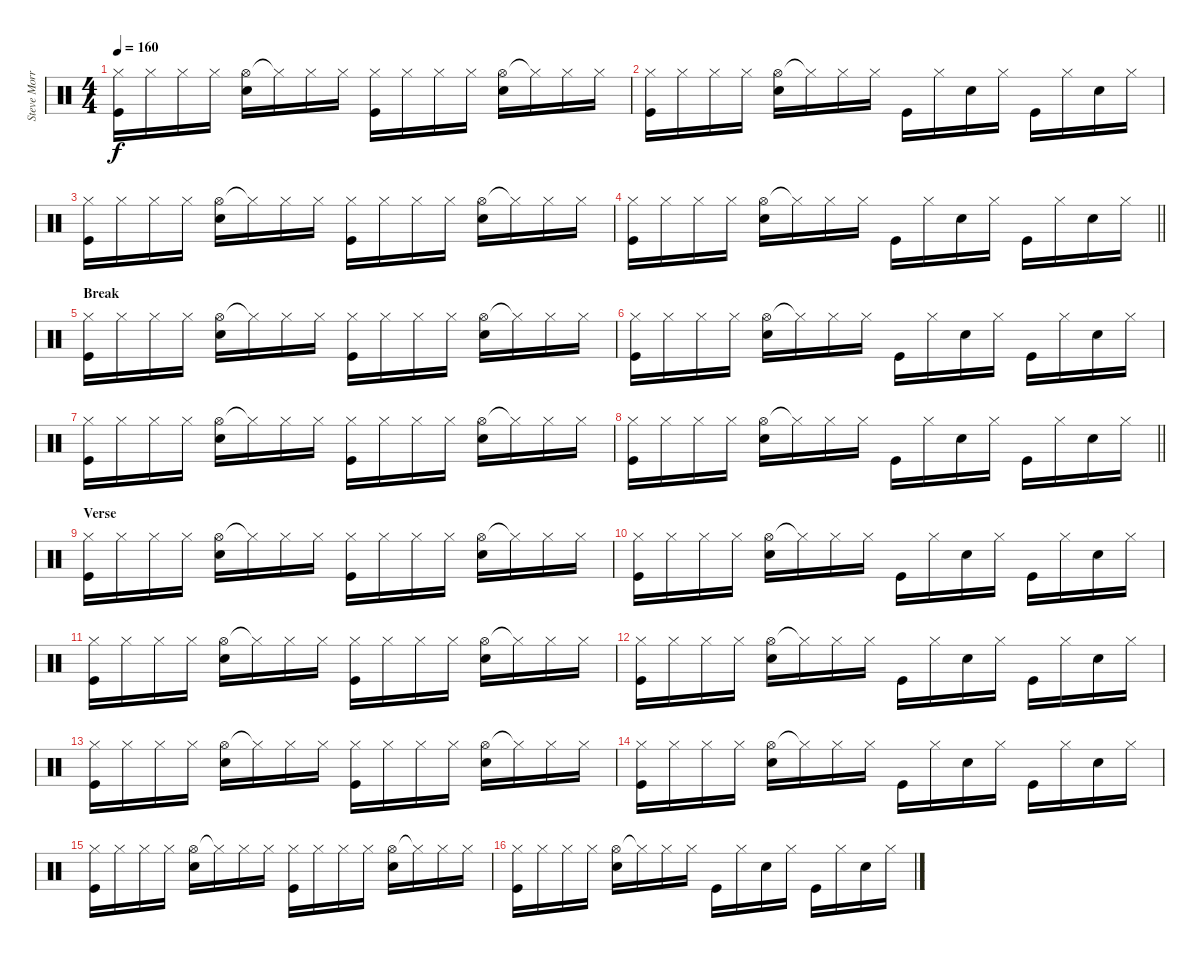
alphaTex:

\track ("Steve Morris" "Steve Morr") {instrument percussion}
\staff {score}
\articulation defaults
\ts (4 4)
\tempo 160
\clef neutral
\ks c
("Hi-Hat (closed)" "Kick (hit)").16{dy f} "Hi-Hat (closed)".16 "Hi-Hat (closed)".16 "Hi-Hat (closed)".16 ("Hi-Hat (open)" "Electric Snare (hit)").16 "Hi-Hat (closed)"{t}.16 "Hi-Hat (closed)".16 "Hi-Hat (closed)".16 ("Hi-Hat (closed)" "Kick (hit)").16 "Hi-Hat (closed)".16 "Hi-Hat (closed)".16 "Hi-Hat (closed)".16 ("Hi-Hat (open)" "Electric Snare (hit)").16 "Hi-Hat (closed)"{t}.16 "Hi-Hat (closed)".16 "Hi-Hat (closed)".16 |
("Hi-Hat (closed)" "Kick (hit)").16 "Hi-Hat (closed)".16 "Hi-Hat (closed)".16 "Hi-Hat (closed)".16 ("Hi-Hat (open)" "Electric Snare (hit)").16 "Hi-Hat (closed)"{t}.16 "Hi-Hat (closed)".16 "Hi-Hat (closed)".16 "Kick (hit)".16 "Hi-Hat (closed)".16 "Electric Snare (hit)".16 "Hi-Hat (closed)".16 "Kick (hit)".16 "Hi-Hat (closed)".16 "Electric Snare (hit)".16 "Hi-Hat (closed)".16 |
("Hi-Hat (closed)" "Kick (hit)").16 "Hi-Hat (closed)".16 "Hi-Hat (closed)".16 "Hi-Hat (closed)".16 ("Hi-Hat (open)" "Electric Snare (hit)").16 "Hi-Hat (closed)"{t}.16 "Hi-Hat (closed)".16 "Hi-Hat (closed)".16 ("Hi-Hat (closed)" "Kick (hit)").16 "Hi-Hat (closed)".16 "Hi-Hat (closed)".16 "Hi-Hat (closed)".16 ("Hi-Hat (open)" "Electric Snare (hit)").16 "Hi-Hat (closed)"{t}.16 "Hi-Hat (closed)".16 "Hi-Hat (closed)".16 |
\barLineRight lightlight
("Hi-Hat (closed)" "Kick (hit)").16 "Hi-Hat (closed)".16 "Hi-Hat (closed)".16 "Hi-Hat (closed)".16 ("Hi-Hat (open)" "Electric Snare (hit)").16 "Hi-Hat (closed)"{t}.16 "Hi-Hat (closed)".16 "Hi-Hat (closed)".16 "Kick (hit)".16 "Hi-Hat (closed)".16 "Electric Snare (hit)".16 "Hi-Hat (closed)".16 "Kick (hit)".16 "Hi-Hat (closed)".16 "Electric Snare (hit)".16 "Hi-Hat (closed)".16 |
\section ("" "Break")
("Hi-Hat (closed)" "Kick (hit)").16 "Hi-Hat (closed)".16 "Hi-Hat (closed)".16 "Hi-Hat (closed)".16 ("Hi-Hat (open)" "Electric Snare (hit)").16 "Hi-Hat (closed)"{t}.16 "Hi-Hat (closed)".16 "Hi-Hat (closed)".16 ("Hi-Hat (closed)" "Kick (hit)").16 "Hi-Hat (closed)".16 "Hi-Hat (closed)".16 "Hi-Hat (closed)".16 ("Hi-Hat (open)" "Electric Snare (hit)").16 "Hi-Hat (closed)"{t}.16 "Hi-Hat (closed)".16 "Hi-Hat (closed)".16 |
("Hi-Hat (closed)" "Kick (hit)").16 "Hi-Hat (closed)".16 "Hi-Hat (closed)".16 "Hi-Hat (closed)".16 ("Hi-Hat (open)" "Electric Snare (hit)").16 "Hi-Hat (closed)"{t}.16 "Hi-Hat (closed)".16 "Hi-Hat (closed)".16 "Kick (hit)".16 "Hi-Hat (closed)".16 "Electric Snare (hit)".16 "Hi-Hat (closed)".16 "Kick (hit)".16 "Hi-Hat (closed)".16 "Electric Snare (hit)".16 "Hi-Hat (closed)".16 |
("Hi-Hat (closed)" "Kick (hit)").16 "Hi-Hat (closed)".16 "Hi-Hat (closed)".16 "Hi-Hat (closed)".16 ("Hi-Hat (open)" "Electric Snare (hit)").16 "Hi-Hat (closed)"{t}.16 "Hi-Hat (closed)".16 "Hi-Hat (closed)".16 ("Hi-Hat (closed)" "Kick (hit)").16 "Hi-Hat (closed)".16 "Hi-Hat (closed)".16 "Hi-Hat (closed)".16 ("Hi-Hat (open)" "Electric Snare (hit)").16 "Hi-Hat (closed)"{t}.16 "Hi-Hat (closed)".16 "Hi-Hat (closed)".16 |
\barLineRight lightlight
("Hi-Hat (closed)" "Kick (hit)").16 "Hi-Hat (closed)".16 "Hi-Hat (closed)".16 "Hi-Hat (closed)".16 ("Hi-Hat (open)" "Electric Snare (hit)").16 "Hi-Hat (closed)"{t}.16 "Hi-Hat (closed)".16 "Hi-Hat (closed)".16 "Kick (hit)".16 "Hi-Hat (closed)".16 "Electric Snare (hit)".16 "Hi-Hat (closed)".16 "Kick (hit)".16 "Hi-Hat (closed)".16 "Electric Snare (hit)".16 "Hi-Hat (closed)".16 |
\section ("" "Verse")
("Hi-Hat (closed)" "Kick (hit)").16 "Hi-Hat (closed)".16 "Hi-Hat (closed)".16 "Hi-Hat (closed)".16 ("Hi-Hat (open)" "Electric Snare (hit)").16 "Hi-Hat (closed)"{t}.16 "Hi-Hat (closed)".16 "Hi-Hat (closed)".16 ("Hi-Hat (closed)" "Kick (hit)").16 "Hi-Hat (closed)".16 "Hi-Hat (closed)".16 "Hi-Hat (closed)".16 ("Hi-Hat (open)" "Electric Snare (hit)").16 "Hi-Hat (closed)"{t}.16 "Hi-Hat (closed)".16 "Hi-Hat (closed)".16 |
("Hi-Hat (closed)" "Kick (hit)").16 "Hi-Hat (closed)".16 "Hi-Hat (closed)".16 "Hi-Hat (closed)".16 ("Hi-Hat (open)" "Electric Snare (hit)").16 "Hi-Hat (closed)"{t}.16 "Hi-Hat (closed)".16 "Hi-Hat (closed)".16 "Kick (hit)".16 "Hi-Hat (closed)".16 "Electric Snare (hit)".16 "Hi-Hat (closed)".16 "Kick (hit)".16 "Hi-Hat (closed)".16 "Electric Snare (hit)".16 "Hi-Hat (closed)".16 |
("Hi-Hat (closed)" "Kick (hit)").16 "Hi-Hat (closed)".16 "Hi-Hat (closed)".16 "Hi-Hat (closed)".16 ("Hi-Hat (open)" "Electric Snare (hit)").16 "Hi-Hat (closed)"{t}.16 "Hi-Hat (closed)".16 "Hi-Hat (closed)".16 ("Hi-Hat (closed)" "Kick (hit)").16 "Hi-Hat (closed)".16 "Hi-Hat (closed)".16 "Hi-Hat (closed)".16 ("Hi-Hat (open)" "Electric Snare (hit)").16 "Hi-Hat (closed)"{t}.16 "Hi-Hat (closed)".16 "Hi-Hat (closed)".16 |
("Hi-Hat (closed)" "Kick (hit)").16 "Hi-Hat (closed)".16 "Hi-Hat (closed)".16 "Hi-Hat (closed)".16 ("Hi-Hat (open)" "Electric Snare (hit)").16 "Hi-Hat (closed)"{t}.16 "Hi-Hat (closed)".16 "Hi-Hat (closed)".16 "Kick (hit)".16 "Hi-Hat (closed)".16 "Electric Snare (hit)".16 "Hi-Hat (closed)".16 "Kick (hit)".16 "Hi-Hat (closed)".16 "Electric Snare (hit)".16 "Hi-Hat (closed)".16 |
("Hi-Hat (closed)" "Kick (hit)").16 "Hi-Hat (closed)".16 "Hi-Hat (closed)".16 "Hi-Hat (closed)".16 ("Hi-Hat (open)" "Electric Snare (hit)").16 "Hi-Hat (closed)"{t}.16 "Hi-Hat (closed)".16 "Hi-Hat (closed)".16 ("Hi-Hat (closed)" "Kick (hit)").16 "Hi-Hat (closed)".16 "Hi-Hat (closed)".16 "Hi-Hat (closed)".16 ("Hi-Hat (open)" "Electric Snare (hit)").16 "Hi-Hat (closed)"{t}.16 "Hi-Hat (closed)".16 "Hi-Hat (closed)".16 |
("Hi-Hat (closed)" "Kick (hit)").16 "Hi-Hat (closed)".16 "Hi-Hat (closed)".16 "Hi-Hat (closed)".16 ("Hi-Hat (open)" "Electric Snare (hit)").16 "Hi-Hat (closed)"{t}.16 "Hi-Hat (closed)".16 "Hi-Hat (closed)".16 "Kick (hit)".16 "Hi-Hat (closed)".16 "Electric Snare (hit)".16 "Hi-Hat (closed)".16 "Kick (hit)".16 "Hi-Hat (closed)".16 "Electric Snare (hit)".16 "Hi-Hat (closed)".16 |
("Hi-Hat (closed)" "Kick (hit)").16 "Hi-Hat (closed)".16 "Hi-Hat (closed)".16 "Hi-Hat (closed)".16 ("Hi-Hat (open)" "Electric Snare (hit)").16 "Hi-Hat (closed)"{t}.16 "Hi-Hat (closed)".16 "Hi-Hat (closed)".16 ("Hi-Hat (closed)" "Kick (hit)").16 "Hi-Hat (closed)".16 "Hi-Hat (closed)".16 "Hi-Hat (closed)".16 ("Hi-Hat (open)" "Electric Snare (hit)").16 "Hi-Hat (closed)"{t}.16 "Hi-Hat (closed)".16 "Hi-Hat (closed)".16 |
("Hi-Hat (closed)" "Kick (hit)").16 "Hi-Hat (closed)".16 "Hi-Hat (closed)".16 "Hi-Hat (closed)".16 ("Hi-Hat (open)" "Electric Snare (hit)").16 "Hi-Hat (closed)"{t}.16 "Hi-Hat (closed)".16 "Hi-Hat (closed)".16 "Kick (hit)".16 "Hi-Hat (closed)".16 "Electric Snare (hit)".16 "Hi-Hat (closed)".16 "Kick (hit)".16 "Hi-Hat (closed)".16 "Electric Snare (hit)".16 "Hi-Hat (closed)".16
